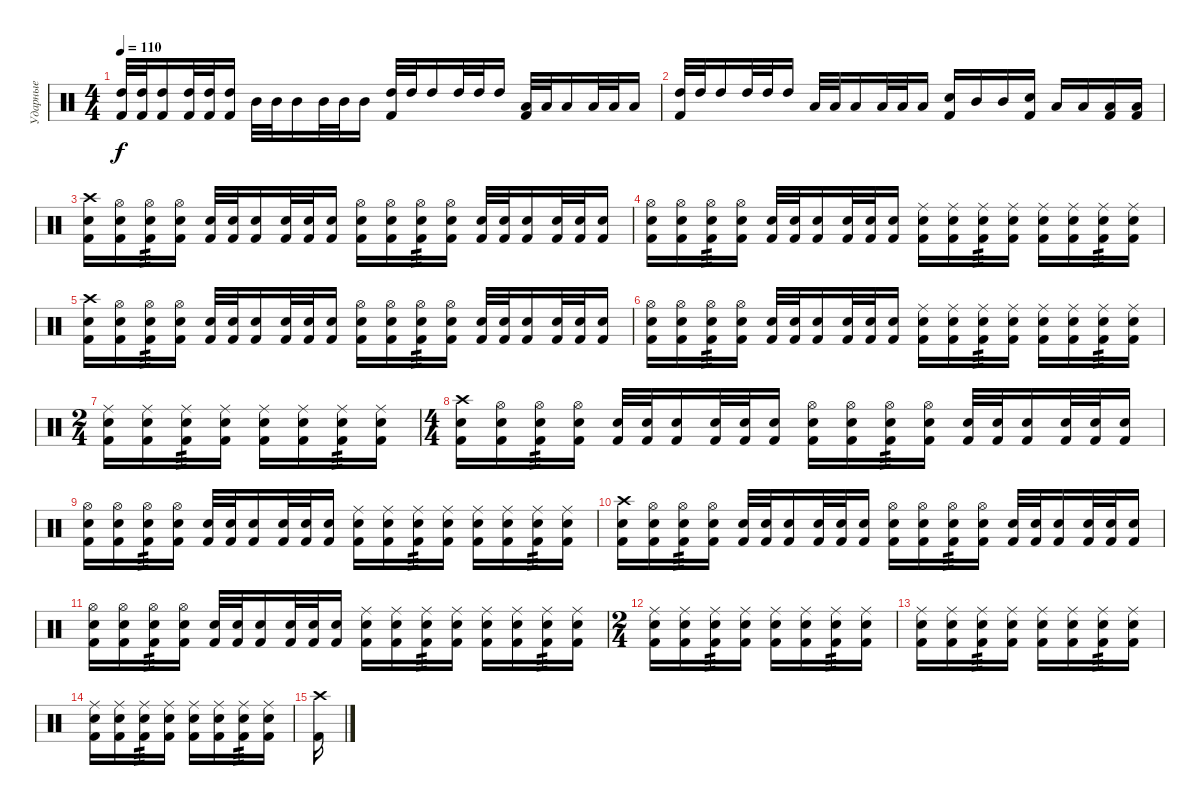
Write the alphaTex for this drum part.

\track ("Ударные" "Ударные") {instrument percussion}
\staff {score}
\articulation defaults
\ts (4 4)
\tempo 110
\clef neutral
\ks c
("High Tom (hit)" "Kick (hit) 2").32{dy f} ("High Tom (hit)" "Kick (hit) 2").32 ("High Tom (hit)" "Kick (hit) 2").16 ("High Tom (hit)" "Kick (hit) 2").32 ("High Tom (hit)" "Kick (hit) 2").32 ("High Tom (hit)" "Kick (hit) 2").16 "Mid Tom (hit)".32 "Mid Tom (hit)".32 "Mid Tom (hit)".16 "Mid Tom (hit)".32 "Mid Tom (hit)".32 "Mid Tom (hit)".16 ("High Tom (hit)" "Kick (hit) 2").32 "High Tom (hit)".32 "High Tom (hit)".16 "High Tom (hit)".32 "High Tom (hit)".32 "High Tom (hit)".16 ("Low Tom (hit)" "Kick (hit) 2").32 "Low Tom (hit)".32 "Low Tom (hit)".16 "Low Tom (hit)".32 "Low Tom (hit)".32 "Low Tom (hit)".16 |
("High Tom (hit)" "Kick (hit) 2").32 "High Tom (hit)".32 "High Tom (hit)".16 "High Tom (hit)".32 "High Tom (hit)".32 "High Tom (hit)".16 "Low Tom (hit)".32 "Low Tom (hit)".32 "Low Tom (hit)".16 "Low Tom (hit)".32 "Low Tom (hit)".32 "Low Tom (hit)".16 ("Snare (hit) 2" "Kick (hit) 2").16 "Mid Tom (hit)".16 "Mid Tom (hit)".16 ("Kick (hit) 2" "Snare (hit) 2").16 "Low Tom (hit)".16 "Low Tom (hit)".16 ("Low Floor Tom (hit)" "Kick (hit) 2").16 ("Low Floor Tom (hit)" "Kick (hit) 2").16 |
("Snare (hit) 2" "Kick (hit) 2" "Crash high (hit)").16 ("Snare (hit) 2" "Kick (hit) 2" "Hi-Hat (open)").16 ("Snare (hit) 2" "Kick (hit) 2" "Hi-Hat (open)").16{tp 3} ("Snare (hit) 2" "Kick (hit) 2" "Hi-Hat (open)").16 ("Snare (hit) 2" "Kick (hit) 2").32 ("Snare (hit) 2" "Kick (hit) 2").32 ("Snare (hit) 2" "Kick (hit) 2").16 ("Snare (hit) 2" "Kick (hit) 2").32 ("Snare (hit) 2" "Kick (hit) 2").32 ("Snare (hit) 2" "Kick (hit) 2").16 ("Snare (hit) 2" "Kick (hit) 2" "Hi-Hat (open)").16 ("Snare (hit) 2" "Kick (hit) 2" "Hi-Hat (open)").16 ("Snare (hit) 2" "Kick (hit) 2" "Hi-Hat (open)").16{tp 3} ("Snare (hit) 2" "Kick (hit) 2" "Hi-Hat (open)").16 ("Snare (hit) 2" "Kick (hit) 2").32 ("Snare (hit) 2" "Kick (hit) 2").32 ("Snare (hit) 2" "Kick (hit) 2").16 ("Snare (hit) 2" "Kick (hit) 2").32 ("Snare (hit) 2" "Kick (hit) 2").32 ("Snare (hit) 2" "Kick (hit) 2").16 |
("Snare (hit) 2" "Kick (hit) 2" "Hi-Hat (open)").16 ("Snare (hit) 2" "Kick (hit) 2" "Hi-Hat (open)").16 ("Snare (hit) 2" "Kick (hit) 2" "Hi-Hat (open)").16{tp 3} ("Snare (hit) 2" "Kick (hit) 2" "Hi-Hat (open)").16 ("Snare (hit) 2" "Kick (hit) 2").32 ("Snare (hit) 2" "Kick (hit) 2").32 ("Snare (hit) 2" "Kick (hit) 2").16 ("Snare (hit) 2" "Kick (hit) 2").32 ("Snare (hit) 2" "Kick (hit) 2").32 ("Snare (hit) 2" "Kick (hit) 2").16 ("Snare (hit) 2" "Kick (hit) 2" "Ride (middle)").16 ("Snare (hit) 2" "Kick (hit) 2" "Ride (middle)").16 ("Snare (hit) 2" "Kick (hit) 2" "Ride (middle)").16{tp 3} ("Snare (hit) 2" "Kick (hit) 2" "Ride (middle)").16 ("Snare (hit) 2" "Kick (hit) 2" "Ride (middle)").16 ("Snare (hit) 2" "Kick (hit) 2" "Ride (middle)").16 ("Snare (hit) 2" "Kick (hit) 2" "Ride (middle)").16{tp 3} ("Snare (hit) 2" "Kick (hit) 2" "Ride (middle)").16 |
("Snare (hit) 2" "Kick (hit) 2" "Crash high (hit)").16 ("Snare (hit) 2" "Kick (hit) 2" "Hi-Hat (open)").16 ("Snare (hit) 2" "Kick (hit) 2" "Hi-Hat (open)").16{tp 3} ("Snare (hit) 2" "Kick (hit) 2" "Hi-Hat (open)").16 ("Snare (hit) 2" "Kick (hit) 2").32 ("Snare (hit) 2" "Kick (hit) 2").32 ("Snare (hit) 2" "Kick (hit) 2").16 ("Snare (hit) 2" "Kick (hit) 2").32 ("Snare (hit) 2" "Kick (hit) 2").32 ("Snare (hit) 2" "Kick (hit) 2").16 ("Snare (hit) 2" "Kick (hit) 2" "Hi-Hat (open)").16 ("Snare (hit) 2" "Kick (hit) 2" "Hi-Hat (open)").16 ("Snare (hit) 2" "Kick (hit) 2" "Hi-Hat (open)").16{tp 3} ("Snare (hit) 2" "Kick (hit) 2" "Hi-Hat (open)").16 ("Snare (hit) 2" "Kick (hit) 2").32 ("Snare (hit) 2" "Kick (hit) 2").32 ("Snare (hit) 2" "Kick (hit) 2").16 ("Snare (hit) 2" "Kick (hit) 2").32 ("Snare (hit) 2" "Kick (hit) 2").32 ("Snare (hit) 2" "Kick (hit) 2").16 |
("Snare (hit) 2" "Kick (hit) 2" "Hi-Hat (open)").16 ("Snare (hit) 2" "Kick (hit) 2" "Hi-Hat (open)").16 ("Snare (hit) 2" "Kick (hit) 2" "Hi-Hat (open)").16{tp 3} ("Snare (hit) 2" "Kick (hit) 2" "Hi-Hat (open)").16 ("Snare (hit) 2" "Kick (hit) 2").32 ("Snare (hit) 2" "Kick (hit) 2").32 ("Snare (hit) 2" "Kick (hit) 2").16 ("Snare (hit) 2" "Kick (hit) 2").32 ("Snare (hit) 2" "Kick (hit) 2").32 ("Snare (hit) 2" "Kick (hit) 2").16 ("Snare (hit) 2" "Kick (hit) 2" "Ride (middle)").16 ("Snare (hit) 2" "Kick (hit) 2" "Ride (middle)").16 ("Snare (hit) 2" "Kick (hit) 2" "Ride (middle)").16{tp 3} ("Snare (hit) 2" "Kick (hit) 2" "Ride (middle)").16 ("Snare (hit) 2" "Kick (hit) 2" "Ride (middle)").16 ("Snare (hit) 2" "Kick (hit) 2" "Ride (middle)").16 ("Snare (hit) 2" "Kick (hit) 2" "Ride (middle)").16{tp 3} ("Snare (hit) 2" "Kick (hit) 2" "Ride (middle)").16 |
\ts (2 4)
("Snare (hit) 2" "Kick (hit) 2" "Ride (middle)").16 ("Snare (hit) 2" "Kick (hit) 2" "Ride (middle)").16 ("Snare (hit) 2" "Kick (hit) 2" "Ride (middle)").16{tp 3} ("Snare (hit) 2" "Kick (hit) 2" "Ride (middle)").16 ("Snare (hit) 2" "Kick (hit) 2" "Ride (middle)").16 ("Snare (hit) 2" "Kick (hit) 2" "Ride (middle)").16 ("Snare (hit) 2" "Kick (hit) 2" "Ride (middle)").16{tp 3} ("Snare (hit) 2" "Kick (hit) 2" "Ride (middle)").16 |
\ts (4 4)
("Snare (hit) 2" "Kick (hit) 2" "Crash high (hit)").16 ("Snare (hit) 2" "Kick (hit) 2" "Hi-Hat (open)").16 ("Snare (hit) 2" "Kick (hit) 2" "Hi-Hat (open)").16{tp 3} ("Snare (hit) 2" "Kick (hit) 2" "Hi-Hat (open)").16 ("Snare (hit) 2" "Kick (hit) 2").32 ("Snare (hit) 2" "Kick (hit) 2").32 ("Snare (hit) 2" "Kick (hit) 2").16 ("Snare (hit) 2" "Kick (hit) 2").32 ("Snare (hit) 2" "Kick (hit) 2").32 ("Snare (hit) 2" "Kick (hit) 2").16 ("Snare (hit) 2" "Kick (hit) 2" "Hi-Hat (open)").16 ("Snare (hit) 2" "Kick (hit) 2" "Hi-Hat (open)").16 ("Snare (hit) 2" "Kick (hit) 2" "Hi-Hat (open)").16{tp 3} ("Snare (hit) 2" "Kick (hit) 2" "Hi-Hat (open)").16 ("Snare (hit) 2" "Kick (hit) 2").32 ("Snare (hit) 2" "Kick (hit) 2").32 ("Snare (hit) 2" "Kick (hit) 2").16 ("Snare (hit) 2" "Kick (hit) 2").32 ("Snare (hit) 2" "Kick (hit) 2").32 ("Snare (hit) 2" "Kick (hit) 2").16 |
("Snare (hit) 2" "Kick (hit) 2" "Hi-Hat (open)").16 ("Snare (hit) 2" "Kick (hit) 2" "Hi-Hat (open)").16 ("Snare (hit) 2" "Kick (hit) 2" "Hi-Hat (open)").16{tp 3} ("Snare (hit) 2" "Kick (hit) 2" "Hi-Hat (open)").16 ("Snare (hit) 2" "Kick (hit) 2").32 ("Snare (hit) 2" "Kick (hit) 2").32 ("Snare (hit) 2" "Kick (hit) 2").16 ("Snare (hit) 2" "Kick (hit) 2").32 ("Snare (hit) 2" "Kick (hit) 2").32 ("Snare (hit) 2" "Kick (hit) 2").16 ("Snare (hit) 2" "Kick (hit) 2" "Ride (middle)").16 ("Snare (hit) 2" "Kick (hit) 2" "Ride (middle)").16 ("Snare (hit) 2" "Kick (hit) 2" "Ride (middle)").16{tp 3} ("Snare (hit) 2" "Kick (hit) 2" "Ride (middle)").16 ("Snare (hit) 2" "Kick (hit) 2" "Ride (middle)").16 ("Snare (hit) 2" "Kick (hit) 2" "Ride (middle)").16 ("Snare (hit) 2" "Kick (hit) 2" "Ride (middle)").16{tp 3} ("Snare (hit) 2" "Kick (hit) 2" "Ride (middle)").16 |
("Snare (hit) 2" "Kick (hit) 2" "Crash high (hit)").16 ("Snare (hit) 2" "Kick (hit) 2" "Hi-Hat (open)").16 ("Snare (hit) 2" "Kick (hit) 2" "Hi-Hat (open)").16{tp 3} ("Snare (hit) 2" "Kick (hit) 2" "Hi-Hat (open)").16 ("Snare (hit) 2" "Kick (hit) 2").32 ("Snare (hit) 2" "Kick (hit) 2").32 ("Snare (hit) 2" "Kick (hit) 2").16 ("Snare (hit) 2" "Kick (hit) 2").32 ("Snare (hit) 2" "Kick (hit) 2").32 ("Snare (hit) 2" "Kick (hit) 2").16 ("Snare (hit) 2" "Kick (hit) 2" "Hi-Hat (open)").16 ("Snare (hit) 2" "Kick (hit) 2" "Hi-Hat (open)").16 ("Snare (hit) 2" "Kick (hit) 2" "Hi-Hat (open)").16{tp 3} ("Snare (hit) 2" "Kick (hit) 2" "Hi-Hat (open)").16 ("Snare (hit) 2" "Kick (hit) 2").32 ("Snare (hit) 2" "Kick (hit) 2").32 ("Snare (hit) 2" "Kick (hit) 2").16 ("Snare (hit) 2" "Kick (hit) 2").32 ("Snare (hit) 2" "Kick (hit) 2").32 ("Snare (hit) 2" "Kick (hit) 2").16 |
("Snare (hit) 2" "Kick (hit) 2" "Hi-Hat (open)").16 ("Snare (hit) 2" "Kick (hit) 2" "Hi-Hat (open)").16 ("Snare (hit) 2" "Kick (hit) 2" "Hi-Hat (open)").16{tp 3} ("Snare (hit) 2" "Kick (hit) 2" "Hi-Hat (open)").16 ("Snare (hit) 2" "Kick (hit) 2").32 ("Snare (hit) 2" "Kick (hit) 2").32 ("Snare (hit) 2" "Kick (hit) 2").16 ("Snare (hit) 2" "Kick (hit) 2").32 ("Snare (hit) 2" "Kick (hit) 2").32 ("Snare (hit) 2" "Kick (hit) 2").16 ("Snare (hit) 2" "Kick (hit) 2" "Ride (middle)").16 ("Snare (hit) 2" "Kick (hit) 2" "Ride (middle)").16 ("Snare (hit) 2" "Kick (hit) 2" "Ride (middle)").16{tp 3} ("Snare (hit) 2" "Kick (hit) 2" "Ride (middle)").16 ("Snare (hit) 2" "Kick (hit) 2" "Ride (middle)").16 ("Snare (hit) 2" "Kick (hit) 2" "Ride (middle)").16 ("Snare (hit) 2" "Kick (hit) 2" "Ride (middle)").16{tp 3} ("Snare (hit) 2" "Kick (hit) 2" "Ride (middle)").16 |
\ts (2 4)
("Snare (hit) 2" "Kick (hit) 2" "Ride (middle)").16 ("Snare (hit) 2" "Kick (hit) 2" "Ride (middle)").16 ("Snare (hit) 2" "Kick (hit) 2" "Ride (middle)").16{tp 3} ("Snare (hit) 2" "Kick (hit) 2" "Ride (middle)").16 ("Snare (hit) 2" "Kick (hit) 2" "Ride (middle)").16 ("Snare (hit) 2" "Kick (hit) 2" "Ride (middle)").16 ("Snare (hit) 2" "Kick (hit) 2" "Ride (middle)").16{tp 3} ("Snare (hit) 2" "Kick (hit) 2" "Ride (middle)").16 |
("Snare (hit) 2" "Kick (hit) 2" "Ride (middle)").16 ("Snare (hit) 2" "Kick (hit) 2" "Ride (middle)").16 ("Snare (hit) 2" "Kick (hit) 2" "Ride (middle)").16{tp 3} ("Snare (hit) 2" "Kick (hit) 2" "Ride (middle)").16 ("Snare (hit) 2" "Kick (hit) 2" "Ride (middle)").16 ("Snare (hit) 2" "Kick (hit) 2" "Ride (middle)").16 ("Snare (hit) 2" "Kick (hit) 2" "Ride (middle)").16{tp 3} ("Snare (hit) 2" "Kick (hit) 2" "Ride (middle)").16 |
("Snare (hit) 2" "Kick (hit) 2" "Ride (middle)").16 ("Snare (hit) 2" "Kick (hit) 2" "Ride (middle)").16 ("Snare (hit) 2" "Kick (hit) 2" "Ride (middle)").16{tp 3} ("Snare (hit) 2" "Kick (hit) 2" "Ride (middle)").16 ("Snare (hit) 2" "Kick (hit) 2" "Ride (middle)").16 ("Snare (hit) 2" "Kick (hit) 2" "Ride (middle)").16 ("Snare (hit) 2" "Kick (hit) 2" "Ride (middle)").16{tp 3} ("Snare (hit) 2" "Kick (hit) 2" "Ride (middle)").16 |
("Crash high (hit)" "Kick (hit) 2").16
